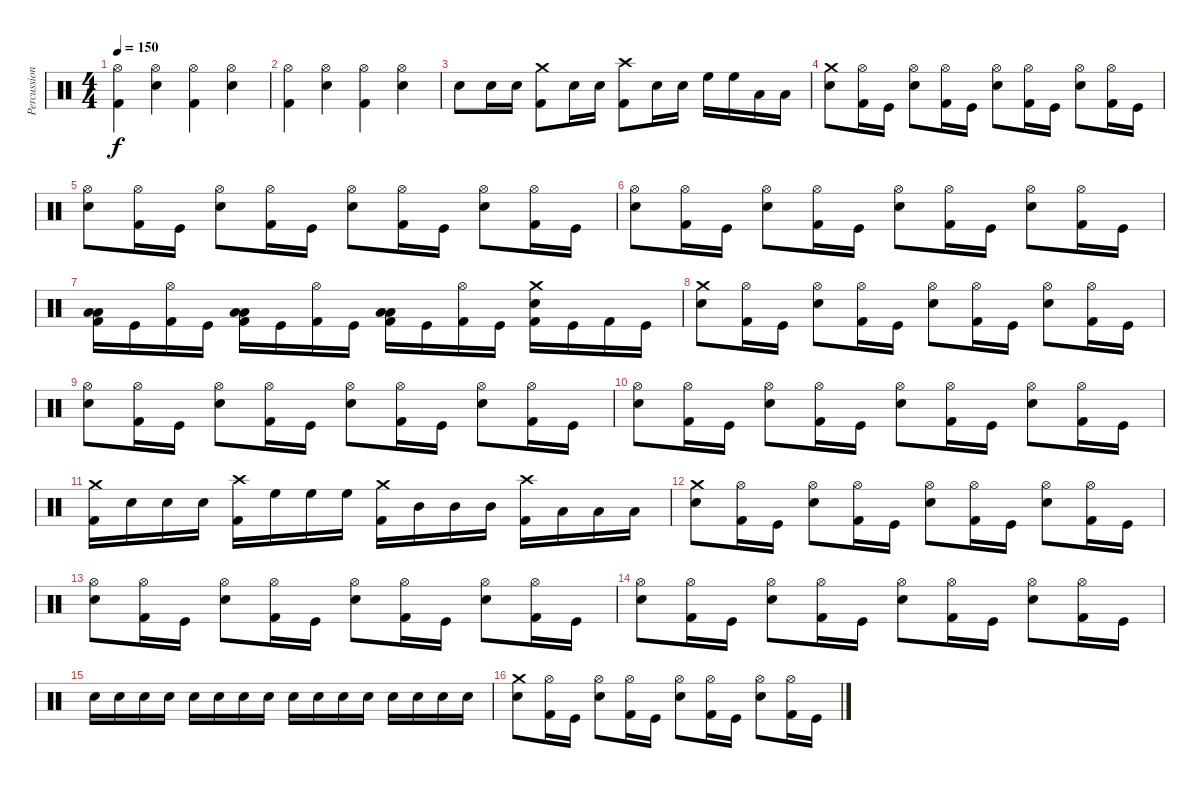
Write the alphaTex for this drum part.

\track ("Percussions" "Percussion") {instrument percussion}
\staff {score}
\articulation defaults
\ts (4 4)
\tempo 150
\clef neutral
\ks c
("Hi-Hat (open)" "Kick (hit) 2").4{dy f} ("Hi-Hat (open)" "Electric Snare (hit)").4 ("Hi-Hat (open)" "Kick (hit) 2").4 ("Hi-Hat (open)" "Electric Snare (hit)").4 |
("Hi-Hat (open)" "Kick (hit) 2").4 ("Hi-Hat (open)" "Electric Snare (hit)").4 ("Hi-Hat (open)" "Kick (hit) 2").4 ("Hi-Hat (open)" "Electric Snare (hit)").4 |
"Electric Snare (hit)".8 "Electric Snare (hit)".16 "Electric Snare (hit)".16 ("Crash medium (hit)" "Kick (hit) 2").8 "Electric Snare (hit)".16 "Electric Snare (hit)".16 ("Crash high (hit)" "Kick (hit) 2").8 "Electric Snare (hit)".16 "Electric Snare (hit)".16 "High Floor Tom (hit)".16 "High Floor Tom (hit)".16 "Low Tom (hit)".16 "Low Tom (hit)".16 |
("Crash medium (hit)" "Electric Snare (hit)").8 ("Hi-Hat (open)" "Kick (hit) 2").16 "Kick (hit)".16 ("Hi-Hat (open)" "Electric Snare (hit)").8 ("Hi-Hat (open)" "Kick (hit) 2").16 "Kick (hit)".16 ("Hi-Hat (open)" "Electric Snare (hit)").8 ("Hi-Hat (open)" "Kick (hit) 2").16 "Kick (hit)".16 ("Hi-Hat (open)" "Electric Snare (hit)").8 ("Hi-Hat (open)" "Kick (hit) 2").16 "Kick (hit)".16 |
("Hi-Hat (open)" "Electric Snare (hit)").8 ("Hi-Hat (open)" "Kick (hit) 2").16 "Kick (hit)".16 ("Hi-Hat (open)" "Electric Snare (hit)").8 ("Hi-Hat (open)" "Kick (hit) 2").16 "Kick (hit)".16 ("Hi-Hat (open)" "Electric Snare (hit)").8 ("Hi-Hat (open)" "Kick (hit) 2").16 "Kick (hit)".16 ("Hi-Hat (open)" "Electric Snare (hit)").8 ("Hi-Hat (open)" "Kick (hit) 2").16 "Kick (hit)".16 |
("Hi-Hat (open)" "Electric Snare (hit)").8 ("Hi-Hat (open)" "Kick (hit) 2").16 "Kick (hit)".16 ("Hi-Hat (open)" "Electric Snare (hit)").8 ("Hi-Hat (open)" "Kick (hit) 2").16 "Kick (hit)".16 ("Hi-Hat (open)" "Electric Snare (hit)").8 ("Hi-Hat (open)" "Kick (hit) 2").16 "Kick (hit)".16 ("Hi-Hat (open)" "Electric Snare (hit)").8 ("Hi-Hat (open)" "Kick (hit) 2").16 "Kick (hit)".16 |
("Low Tom (hit)" "Low Floor Tom (hit)" "Kick (hit) 2").16 "Kick (hit)".16 ("Hi-Hat (open)" "Kick (hit) 2").16 "Kick (hit)".16 ("Low Tom (hit)" "Low Floor Tom (hit)" "Kick (hit) 2").16 "Kick (hit)".16 ("Hi-Hat (open)" "Kick (hit) 2").16 "Kick (hit)".16 ("Low Tom (hit)" "Low Floor Tom (hit)" "Kick (hit) 2").16 "Kick (hit)".16 ("Hi-Hat (open)" "Kick (hit) 2").16 "Kick (hit)".16 ("Crash medium (hit)" "Electric Snare (hit)" "Kick (hit) 2").16 "Kick (hit)".16 "Kick (hit) 2".16 "Kick (hit)".16 |
("Crash medium (hit)" "Electric Snare (hit)").8 ("Hi-Hat (open)" "Kick (hit) 2").16 "Kick (hit)".16 ("Hi-Hat (open)" "Electric Snare (hit)").8 ("Hi-Hat (open)" "Kick (hit) 2").16 "Kick (hit)".16 ("Hi-Hat (open)" "Electric Snare (hit)").8 ("Hi-Hat (open)" "Kick (hit) 2").16 "Kick (hit)".16 ("Hi-Hat (open)" "Electric Snare (hit)").8 ("Hi-Hat (open)" "Kick (hit) 2").16 "Kick (hit)".16 |
("Hi-Hat (open)" "Electric Snare (hit)").8 ("Hi-Hat (open)" "Kick (hit) 2").16 "Kick (hit)".16 ("Hi-Hat (open)" "Electric Snare (hit)").8 ("Hi-Hat (open)" "Kick (hit) 2").16 "Kick (hit)".16 ("Hi-Hat (open)" "Electric Snare (hit)").8 ("Hi-Hat (open)" "Kick (hit) 2").16 "Kick (hit)".16 ("Hi-Hat (open)" "Electric Snare (hit)").8 ("Hi-Hat (open)" "Kick (hit) 2").16 "Kick (hit)".16 |
("Hi-Hat (open)" "Electric Snare (hit)").8{volume 11} ("Hi-Hat (open)" "Kick (hit) 2").16 "Kick (hit)".16 ("Hi-Hat (open)" "Electric Snare (hit)").8 ("Hi-Hat (open)" "Kick (hit) 2").16 "Kick (hit)".16 ("Hi-Hat (open)" "Electric Snare (hit)").8 ("Hi-Hat (open)" "Kick (hit) 2").16 "Kick (hit)".16 ("Hi-Hat (open)" "Electric Snare (hit)").8 ("Hi-Hat (open)" "Kick (hit) 2").16 "Kick (hit)".16 |
("Crash medium (hit)" "Kick (hit) 2").16 "Electric Snare (hit)".16 "Electric Snare (hit)".16 "Electric Snare (hit)".16 ("Crash high (hit)" "Kick (hit) 2").16 "High Floor Tom (hit)".16 "High Floor Tom (hit)".16 "High Floor Tom (hit)".16 ("Crash medium (hit)" "Kick (hit) 2").16 "Mid Tom (hit)".16 "Mid Tom (hit)".16 "Mid Tom (hit)".16 ("Crash high (hit)" "Kick (hit) 2").16 "Low Tom (hit)".16 "Low Tom (hit)".16 "Low Tom (hit)".16 |
("Crash medium (hit)" "Electric Snare (hit)").8{volume 9} ("Hi-Hat (open)" "Kick (hit) 2").16 "Kick (hit)".16 ("Hi-Hat (open)" "Electric Snare (hit)").8 ("Hi-Hat (open)" "Kick (hit) 2").16 "Kick (hit)".16 ("Hi-Hat (open)" "Electric Snare (hit)").8 ("Hi-Hat (open)" "Kick (hit) 2").16 "Kick (hit)".16 ("Hi-Hat (open)" "Electric Snare (hit)").8 ("Hi-Hat (open)" "Kick (hit) 2").16 "Kick (hit)".16 |
("Hi-Hat (open)" "Electric Snare (hit)").8 ("Hi-Hat (open)" "Kick (hit) 2").16 "Kick (hit)".16 ("Hi-Hat (open)" "Electric Snare (hit)").8 ("Hi-Hat (open)" "Kick (hit) 2").16 "Kick (hit)".16 ("Hi-Hat (open)" "Electric Snare (hit)").8 ("Hi-Hat (open)" "Kick (hit) 2").16 "Kick (hit)".16 ("Hi-Hat (open)" "Electric Snare (hit)").8 ("Hi-Hat (open)" "Kick (hit) 2").16 "Kick (hit)".16 |
("Hi-Hat (open)" "Electric Snare (hit)").8{volume 7} ("Hi-Hat (open)" "Kick (hit) 2").16 "Kick (hit)".16 ("Hi-Hat (open)" "Electric Snare (hit)").8 ("Hi-Hat (open)" "Kick (hit) 2").16 "Kick (hit)".16 ("Hi-Hat (open)" "Electric Snare (hit)").8 ("Hi-Hat (open)" "Kick (hit) 2").16 "Kick (hit)".16 ("Hi-Hat (open)" "Electric Snare (hit)").8 ("Hi-Hat (open)" "Kick (hit) 2").16 "Kick (hit)".16 |
"Electric Snare (hit)".16 "Electric Snare (hit)".16 "Electric Snare (hit)".16 "Electric Snare (hit)".16 "Electric Snare (hit)".16 "Electric Snare (hit)".16 "Electric Snare (hit)".16 "Electric Snare (hit)".16 "Electric Snare (hit)".16 "Electric Snare (hit)".16 "Electric Snare (hit)".16 "Electric Snare (hit)".16 "Electric Snare (hit)".16 "Electric Snare (hit)".16 "Electric Snare (hit)".16 "Electric Snare (hit)".16 |
("Crash medium (hit)" "Electric Snare (hit)").8{volume 4} ("Hi-Hat (open)" "Kick (hit) 2").16 "Kick (hit)".16 ("Hi-Hat (open)" "Electric Snare (hit)").8 ("Hi-Hat (open)" "Kick (hit) 2").16 "Kick (hit)".16 ("Hi-Hat (open)" "Electric Snare (hit)").8 ("Hi-Hat (open)" "Kick (hit) 2").16 "Kick (hit)".16 ("Hi-Hat (open)" "Electric Snare (hit)").8 ("Hi-Hat (open)" "Kick (hit) 2").16 "Kick (hit)".16
